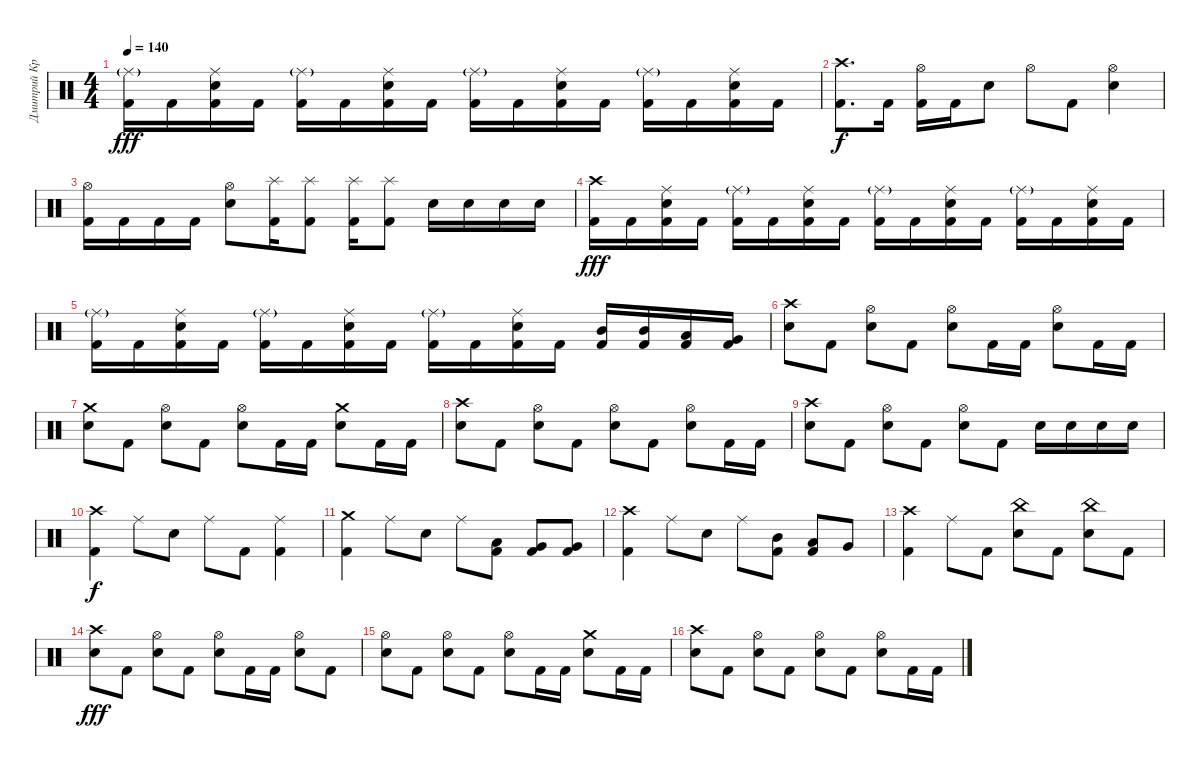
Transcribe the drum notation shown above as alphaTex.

\track ("Дмитрий Кривенков" "Дмитрий Кр") {instrument percussion}
\staff {score}
\articulation defaults
\ts (4 4)
\tempo 140
\clef neutral
\ks c
("Ride (middle)"{g} "Kick (hit) 2").16{dy fff} "Kick (hit) 2".16 ("Ride (middle)" "Electric Snare (hit)" "Kick (hit) 2").16 "Kick (hit) 2".16 ("Ride (middle)"{g} "Kick (hit) 2").16 "Kick (hit) 2".16 ("Ride (middle)" "Electric Snare (hit)" "Kick (hit) 2").16 "Kick (hit) 2".16 ("Ride (middle)"{g} "Kick (hit) 2").16 "Kick (hit) 2".16 ("Ride (middle)" "Electric Snare (hit)" "Kick (hit) 2").16 "Kick (hit) 2".16 ("Ride (middle)"{g} "Kick (hit) 2").16 "Kick (hit) 2".16 ("Ride (middle)" "Electric Snare (hit)" "Kick (hit) 2").16 "Kick (hit) 2".16 |
("Crash high (hit)" "Kick (hit) 2").8{d dy f} "Kick (hit) 2".16 ("Hi-Hat (open)" "Kick (hit) 2").16 "Kick (hit) 2".16 "Electric Snare (hit)".8 "Hi-Hat (open)".8 "Kick (hit) 2".8 ("Hi-Hat (open)" "Electric Snare (hit)").4 |
("Hi-Hat (open)" "Kick (hit) 2").16 "Kick (hit) 2".16 "Kick (hit) 2".16 "Kick (hit) 2".16 ("Hi-Hat (open)" "Electric Snare (hit)").8 ("Splash (hit)" "Kick (hit) 2").16 ("Splash (hit)" "Kick (hit) 2").8 ("Splash (hit)" "Kick (hit) 2").16 ("Splash (hit)" "Kick (hit) 2").8 "Electric Snare (hit)".16 "Electric Snare (hit)".16 "Electric Snare (hit)".16 "Electric Snare (hit)".16 |
("Crash high (hit)" "Kick (hit) 2").16{dy fff} "Kick (hit) 2".16 ("Ride (middle)" "Electric Snare (hit)" "Kick (hit) 2").16 "Kick (hit) 2".16 ("Ride (middle)"{g} "Kick (hit) 2").16 "Kick (hit) 2".16 ("Ride (middle)" "Electric Snare (hit)" "Kick (hit) 2").16 "Kick (hit) 2".16 ("Ride (middle)"{g} "Kick (hit) 2").16 "Kick (hit) 2".16 ("Ride (middle)" "Electric Snare (hit)" "Kick (hit) 2").16 "Kick (hit) 2".16 ("Ride (middle)"{g} "Kick (hit) 2").16 "Kick (hit) 2".16 ("Ride (middle)" "Electric Snare (hit)" "Kick (hit) 2").16 "Kick (hit) 2".16 |
("Ride (middle)"{g} "Kick (hit) 2").16 "Kick (hit) 2".16 ("Ride (middle)" "Electric Snare (hit)" "Kick (hit) 2").16 "Kick (hit) 2".16 ("Ride (middle)"{g} "Kick (hit) 2").16 "Kick (hit) 2".16 ("Ride (middle)" "Electric Snare (hit)" "Kick (hit) 2").16 "Kick (hit) 2".16 ("Ride (middle)"{g} "Kick (hit) 2").16 "Kick (hit) 2".16 ("Ride (middle)" "Electric Snare (hit)" "Kick (hit) 2").16 "Kick (hit) 2".16 ("Mid Tom (hit)" "Kick (hit) 2").16 ("Mid Tom (hit)" "Kick (hit) 2").16 ("Low Tom (hit)" "Kick (hit) 2").16 ("Very Low Tom (hit)" "Kick (hit) 2").16 |
("Crash high (hit)" "Electric Snare (hit)").8 "Kick (hit) 2".8 ("Hi-Hat (open)" "Electric Snare (hit)").8 "Kick (hit) 2".8 ("Hi-Hat (open)" "Electric Snare (hit)").8 "Kick (hit) 2".16 "Kick (hit) 2".16 ("Hi-Hat (open)" "Electric Snare (hit)").8 "Kick (hit) 2".16 "Kick (hit) 2".16 |
("Crash medium (hit)" "Electric Snare (hit)").8 "Kick (hit) 2".8 ("Hi-Hat (open)" "Electric Snare (hit)").8 "Kick (hit) 2".8 ("Hi-Hat (open)" "Electric Snare (hit)").8 "Kick (hit) 2".16 "Kick (hit) 2".16 ("Crash medium (hit)" "Electric Snare (hit)").8 "Kick (hit) 2".16 "Kick (hit) 2".16 |
("Crash high (hit)" "Electric Snare (hit)").8 "Kick (hit) 2".8 ("Hi-Hat (open)" "Electric Snare (hit)").8 "Kick (hit) 2".8 ("Hi-Hat (open)" "Electric Snare (hit)").8 "Kick (hit) 2".8 ("Hi-Hat (open)" "Electric Snare (hit)").8 "Kick (hit) 2".16 "Kick (hit) 2".16 |
("Crash high (hit)" "Electric Snare (hit)").8 "Kick (hit) 2".8 ("Hi-Hat (open)" "Electric Snare (hit)").8 "Kick (hit) 2".8 ("Hi-Hat (open)" "Electric Snare (hit)").8 "Kick (hit) 2".8 "Electric Snare (hit)".16 "Electric Snare (hit)".16 "Electric Snare (hit)".16 "Electric Snare (hit)".16 |
("Crash high (hit)" "Kick (hit) 2").4{dy f} "Ride (middle)".8 "Electric Snare (hit)".8 "Ride (middle)".8 "Kick (hit) 2".8 ("Ride (middle)" "Kick (hit) 2").4 |
("Crash medium (hit)" "Kick (hit) 2").4 "Ride (middle)".8 "Electric Snare (hit)".8 "Ride (middle)".8 ("Low Floor Tom (hit)" "Kick (hit) 2").8 ("Very Low Tom (hit)" "Kick (hit) 2").8 ("Very Low Tom (hit)" "Kick (hit) 2").8 |
("Crash high (hit)" "Kick (hit) 2").4 "Ride (middle)".8 "Electric Snare (hit)".8 "Ride (middle)".8 ("Mid Tom (hit)" "Kick (hit) 2").8 ("Low Tom (hit)" "Kick (hit) 2").8 "Very Low Tom (hit)".8 |
("Crash high (hit)" "Kick (hit) 2").4 "Ride (middle)".8 "Kick (hit) 2".8 ("China (hit)" "Electric Snare (hit)").8 "Kick (hit) 2".8 ("China (hit)" "Electric Snare (hit)").8 "Kick (hit) 2".8 |
("Crash high (hit)" "Electric Snare (hit)").8{dy fff} "Kick (hit) 2".8 ("Hi-Hat (open)" "Electric Snare (hit)").8 "Kick (hit) 2".8 ("Hi-Hat (open)" "Electric Snare (hit)").8 "Kick (hit) 2".16 "Kick (hit) 2".16 ("Hi-Hat (open)" "Electric Snare (hit)").8 "Kick (hit) 2".8 |
("Hi-Hat (open)" "Electric Snare (hit)").8 "Kick (hit) 2".8 ("Hi-Hat (open)" "Electric Snare (hit)").8 "Kick (hit) 2".8 ("Hi-Hat (open)" "Electric Snare (hit)").8 "Kick (hit) 2".16 "Kick (hit) 2".16 ("Crash medium (hit)" "Electric Snare (hit)").8 "Kick (hit) 2".16 "Kick (hit) 2".16 |
("Crash high (hit)" "Electric Snare (hit)").8 "Kick (hit) 2".8 ("Hi-Hat (open)" "Electric Snare (hit)").8 "Kick (hit) 2".8 ("Hi-Hat (open)" "Electric Snare (hit)").8 "Kick (hit) 2".8 ("Hi-Hat (open)" "Electric Snare (hit)").8 "Kick (hit) 2".16 "Kick (hit) 2".16
